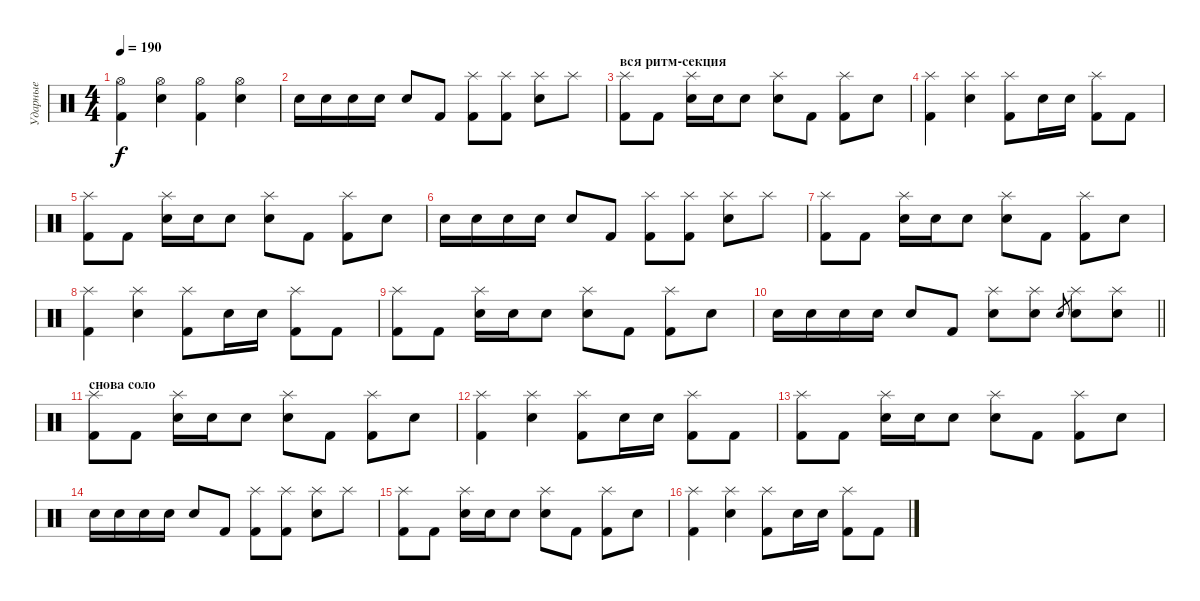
\track ("Ударные" "Ударные") {instrument percussion}
\staff {score}
\articulation defaults
\ts (4 4)
\tempo 190
\clef neutral
\ks c
("Hi-Hat (open)" "Kick (hit) 2").4{dy f} ("Hi-Hat (open)" "Electric Snare (hit)").4 ("Hi-Hat (open)" "Kick (hit) 2").4 ("Hi-Hat (open)" "Electric Snare (hit)").4 |
"Electric Snare (hit)".16 "Electric Snare (hit)".16 "Electric Snare (hit)".16 "Electric Snare (hit)".16 "Electric Snare (hit)".8 "Kick (hit) 2".8 ("Splash (hit)" "Kick (hit) 2").8 ("Splash (hit)" "Kick (hit) 2").8 ("Splash (hit)" "Electric Snare (hit)").8 "Splash (hit)".8 |
\section ("" "вся ритм-секция")
("Splash (hit)" "Kick (hit) 2").8 "Kick (hit) 2".8 ("Splash (hit)" "Electric Snare (hit)").16 "Electric Snare (hit)".16 "Electric Snare (hit)".8 ("Splash (hit)" "Electric Snare (hit)").8 "Kick (hit) 2".8 ("Splash (hit)" "Kick (hit) 2").8 "Electric Snare (hit)".8 |
("Splash (hit)" "Kick (hit) 2").4 ("Splash (hit)" "Electric Snare (hit)").4 ("Splash (hit)" "Kick (hit) 2").8 "Electric Snare (hit)".16 "Electric Snare (hit)".16 ("Splash (hit)" "Kick (hit) 2").8 "Kick (hit) 2".8 |
("Splash (hit)" "Kick (hit) 2").8 "Kick (hit) 2".8 ("Splash (hit)" "Electric Snare (hit)").16 "Electric Snare (hit)".16 "Electric Snare (hit)".8 ("Splash (hit)" "Electric Snare (hit)").8 "Kick (hit) 2".8 ("Splash (hit)" "Kick (hit) 2").8 "Electric Snare (hit)".8 |
"Electric Snare (hit)".16 "Electric Snare (hit)".16 "Electric Snare (hit)".16 "Electric Snare (hit)".16 "Electric Snare (hit)".8 "Kick (hit) 2".8 ("Splash (hit)" "Kick (hit) 2").8 ("Splash (hit)" "Kick (hit) 2").8 ("Splash (hit)" "Electric Snare (hit)").8 "Splash (hit)".8 |
("Splash (hit)" "Kick (hit) 2").8 "Kick (hit) 2".8 ("Splash (hit)" "Electric Snare (hit)").16 "Electric Snare (hit)".16 "Electric Snare (hit)".8 ("Splash (hit)" "Electric Snare (hit)").8 "Kick (hit) 2".8 ("Splash (hit)" "Kick (hit) 2").8 "Electric Snare (hit)".8 |
("Splash (hit)" "Kick (hit) 2").4 ("Splash (hit)" "Electric Snare (hit)").4 ("Splash (hit)" "Kick (hit) 2").8 "Electric Snare (hit)".16 "Electric Snare (hit)".16 ("Splash (hit)" "Kick (hit) 2").8 "Kick (hit) 2".8 |
("Splash (hit)" "Kick (hit) 2").8 "Kick (hit) 2".8 ("Splash (hit)" "Electric Snare (hit)").16 "Electric Snare (hit)".16 "Electric Snare (hit)".8 ("Splash (hit)" "Electric Snare (hit)").8 "Kick (hit) 2".8 ("Splash (hit)" "Kick (hit) 2").8 "Electric Snare (hit)".8 |
\barLineRight lightlight "Electric Snare (hit)".16 "Electric Snare (hit)".16 "Electric Snare (hit)".16 "Electric Snare (hit)".16 "Electric Snare (hit)".8 "Kick (hit) 2".8
("Splash (hit)" "Electric Snare (hit)").8 ("Splash (hit)" "Electric Snare (hit)").8 "Electric Snare (hit)".8{gr} ("Splash (hit)" "Electric Snare (hit)").8 ("Splash (hit)" "Electric Snare (hit)").8 |
\section ("" "снова соло")
("Splash (hit)" "Kick (hit) 2").8 "Kick (hit) 2".8 ("Splash (hit)" "Electric Snare (hit)").16 "Electric Snare (hit)".16 "Electric Snare (hit)".8 ("Splash (hit)" "Electric Snare (hit)").8 "Kick (hit) 2".8 ("Splash (hit)" "Kick (hit) 2").8 "Electric Snare (hit)".8 |
("Splash (hit)" "Kick (hit) 2").4 ("Splash (hit)" "Electric Snare (hit)").4 ("Splash (hit)" "Kick (hit) 2").8 "Electric Snare (hit)".16 "Electric Snare (hit)".16 ("Splash (hit)" "Kick (hit) 2").8 "Kick (hit) 2".8 |
("Splash (hit)" "Kick (hit) 2").8 "Kick (hit) 2".8 ("Splash (hit)" "Electric Snare (hit)").16 "Electric Snare (hit)".16 "Electric Snare (hit)".8 ("Splash (hit)" "Electric Snare (hit)").8 "Kick (hit) 2".8 ("Splash (hit)" "Kick (hit) 2").8 "Electric Snare (hit)".8 |
"Electric Snare (hit)".16 "Electric Snare (hit)".16 "Electric Snare (hit)".16 "Electric Snare (hit)".16 "Electric Snare (hit)".8 "Kick (hit) 2".8 ("Splash (hit)" "Kick (hit) 2").8 ("Splash (hit)" "Kick (hit) 2").8 ("Splash (hit)" "Electric Snare (hit)").8 "Splash (hit)".8 |
("Splash (hit)" "Kick (hit) 2").8 "Kick (hit) 2".8 ("Splash (hit)" "Electric Snare (hit)").16 "Electric Snare (hit)".16 "Electric Snare (hit)".8 ("Splash (hit)" "Electric Snare (hit)").8 "Kick (hit) 2".8 ("Splash (hit)" "Kick (hit) 2").8 "Electric Snare (hit)".8 |
("Splash (hit)" "Kick (hit) 2").4 ("Splash (hit)" "Electric Snare (hit)").4 ("Splash (hit)" "Kick (hit) 2").8 "Electric Snare (hit)".16 "Electric Snare (hit)".16 ("Splash (hit)" "Kick (hit) 2").8 "Kick (hit) 2".8
